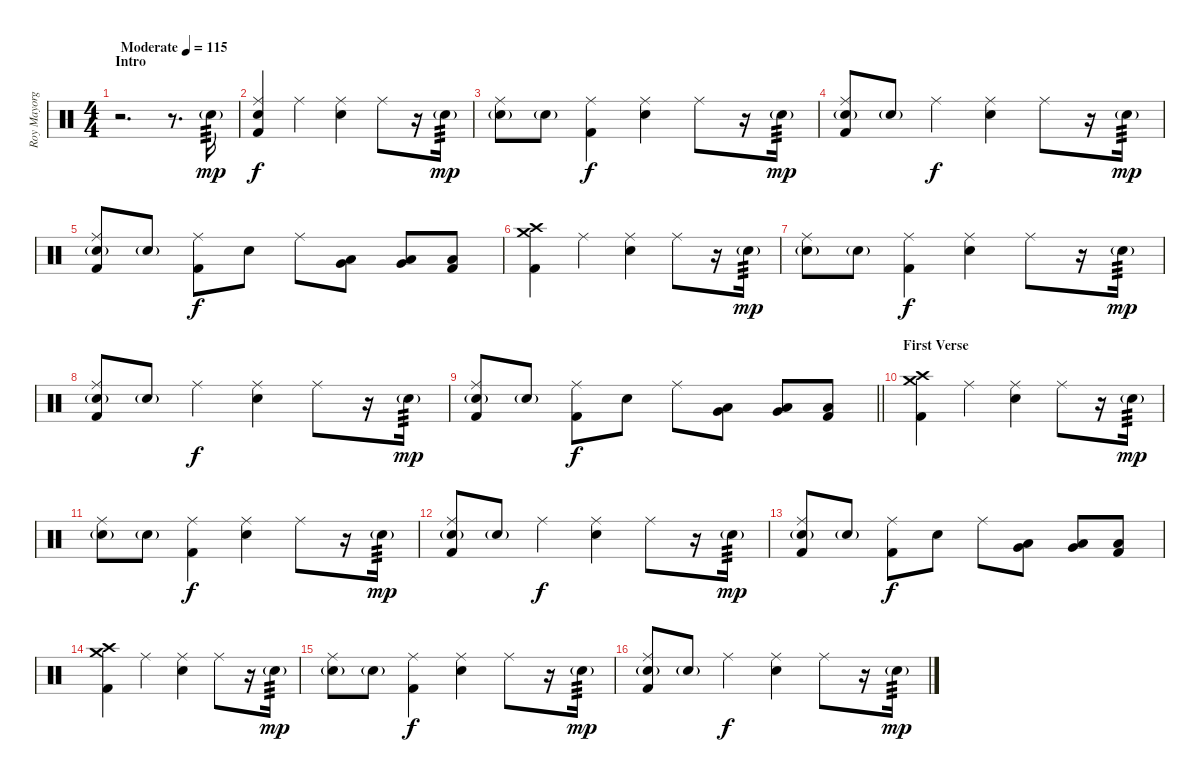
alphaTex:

\track ("Roy Mayorga" "Roy Mayorg") {instrument percussion}
\staff {score}
\articulation defaults
\ts (4 4)
\section ("" "Intro")
\tempo (115 "Moderate")
\clef neutral
\ks c
r.2{d dy mp} r.8{d} "Electric Snare (hit)"{g}.16{tp 3} |
("Ride (middle)" "Electric Snare (hit)" "Kick (hit) 2").4{dy f} "Ride (middle)".4 ("Ride (middle)" "Electric Snare (hit)").4 "Ride (middle)".8 r.16 "Electric Snare (hit)"{g}.16{tp 3 dy mp} |
("Ride (middle)" "Electric Snare (hit)"{g}).8 "Electric Snare (hit)"{g}.8 ("Ride (middle)" "Kick (hit) 2").4{dy f} ("Ride (middle)" "Electric Snare (hit)").4 "Ride (middle)".8 r.16 "Electric Snare (hit)"{g}.16{tp 3 dy mp} |
("Ride (middle)" "Electric Snare (hit)"{g} "Kick (hit) 2").8 "Electric Snare (hit)"{g}.8 "Ride (middle)".4{dy f} ("Ride (middle)" "Electric Snare (hit)").4 "Ride (middle)".8 r.16 "Electric Snare (hit)"{g}.16{tp 3 dy mp} |
("Ride (middle)" "Electric Snare (hit)"{g} "Kick (hit) 2").8 "Electric Snare (hit)"{g}.8 ("Ride (middle)" "Kick (hit) 2").8{dy f} "Electric Snare (hit)".8 "Ride (middle)".8 ("Low Tom (hit)" "Very Low Tom (hit)").8 ("Very Low Tom (hit)" "Low Floor Tom (hit)").8 ("Low Floor Tom (hit)" "Kick (hit) 2").8 |
("Crash high (hit)" "Crash medium (hit)" "Kick (hit) 2").4 "Ride (middle)".4 ("Ride (middle)" "Electric Snare (hit)").4 "Ride (middle)".8 r.16 "Electric Snare (hit)"{g}.16{tp 3 dy mp} |
("Ride (middle)" "Electric Snare (hit)"{g}).8 "Electric Snare (hit)"{g}.8 ("Ride (middle)" "Kick (hit) 2").4{dy f} ("Ride (middle)" "Electric Snare (hit)").4 "Ride (middle)".8 r.16 "Electric Snare (hit)"{g}.16{tp 3 dy mp} |
("Ride (middle)" "Electric Snare (hit)"{g} "Kick (hit) 2").8 "Electric Snare (hit)"{g}.8 "Ride (middle)".4{dy f} ("Ride (middle)" "Electric Snare (hit)").4 "Ride (middle)".8 r.16 "Electric Snare (hit)"{g}.16{tp 3 dy mp} |
\barLineRight lightlight
("Ride (middle)" "Electric Snare (hit)"{g} "Kick (hit) 2").8 "Electric Snare (hit)"{g}.8 ("Ride (middle)" "Kick (hit) 2").8{dy f} "Electric Snare (hit)".8 "Ride (middle)".8 ("Low Tom (hit)" "Very Low Tom (hit)").8 ("Very Low Tom (hit)" "Low Floor Tom (hit)").8 ("Low Floor Tom (hit)" "Kick (hit) 2").8 |
\section ("" "First Verse")
("Crash high (hit)" "Crash medium (hit)" "Kick (hit) 2").4 "Ride (middle)".4 ("Ride (middle)" "Electric Snare (hit)").4 "Ride (middle)".8 r.16 "Electric Snare (hit)"{g}.16{tp 3 dy mp} |
("Ride (middle)" "Electric Snare (hit)"{g}).8 "Electric Snare (hit)"{g}.8 ("Ride (middle)" "Kick (hit) 2").4{dy f} ("Ride (middle)" "Electric Snare (hit)").4 "Ride (middle)".8 r.16 "Electric Snare (hit)"{g}.16{tp 3 dy mp} |
("Ride (middle)" "Electric Snare (hit)"{g} "Kick (hit) 2").8 "Electric Snare (hit)"{g}.8 "Ride (middle)".4{dy f} ("Ride (middle)" "Electric Snare (hit)").4 "Ride (middle)".8 r.16 "Electric Snare (hit)"{g}.16{tp 3 dy mp} |
("Ride (middle)" "Electric Snare (hit)"{g} "Kick (hit) 2").8 "Electric Snare (hit)"{g}.8 ("Ride (middle)" "Kick (hit) 2").8{dy f} "Electric Snare (hit)".8 "Ride (middle)".8 ("Low Tom (hit)" "Very Low Tom (hit)").8 ("Very Low Tom (hit)" "Low Floor Tom (hit)").8 ("Low Floor Tom (hit)" "Kick (hit) 2").8 |
("Crash high (hit)" "Crash medium (hit)" "Kick (hit) 2").4 "Ride (middle)".4 ("Ride (middle)" "Electric Snare (hit)").4 "Ride (middle)".8 r.16 "Electric Snare (hit)"{g}.16{tp 3 dy mp} |
("Ride (middle)" "Electric Snare (hit)"{g}).8 "Electric Snare (hit)"{g}.8 ("Ride (middle)" "Kick (hit) 2").4{dy f} ("Ride (middle)" "Electric Snare (hit)").4 "Ride (middle)".8 r.16 "Electric Snare (hit)"{g}.16{tp 3 dy mp} |
("Ride (middle)" "Electric Snare (hit)"{g} "Kick (hit) 2").8 "Electric Snare (hit)"{g}.8 "Ride (middle)".4{dy f} ("Ride (middle)" "Electric Snare (hit)").4 "Ride (middle)".8 r.16 "Electric Snare (hit)"{g}.16{tp 3 dy mp}
